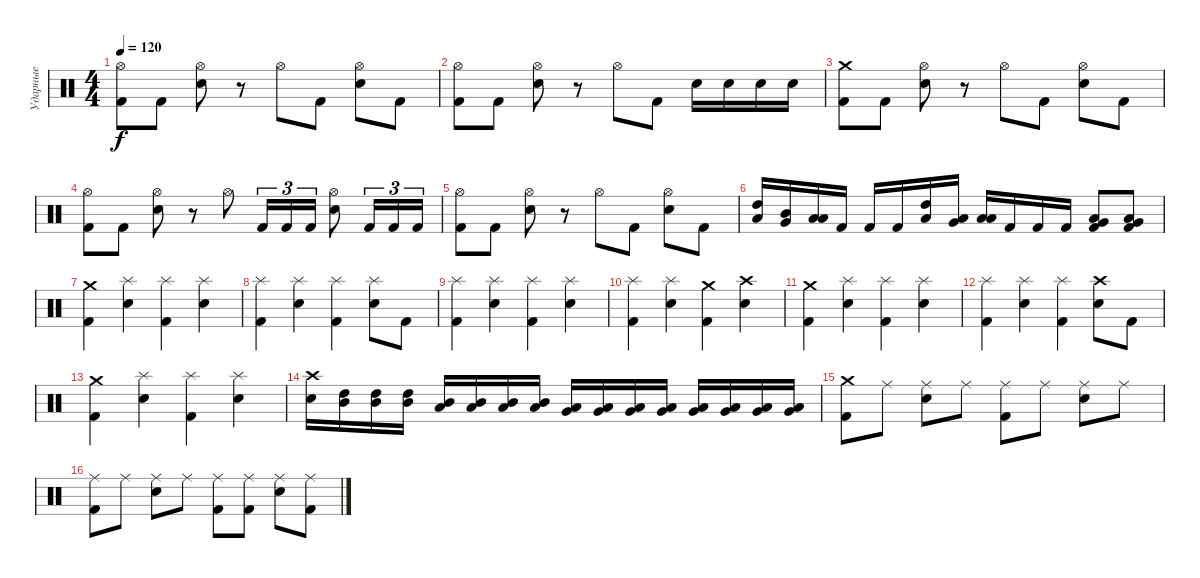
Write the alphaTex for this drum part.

\track ("Ударные" "Ударные") {instrument percussion}
\staff {score}
\articulation defaults
\ts (4 4)
\tempo 120
\clef neutral
\ks c
("Hi-Hat (open)" "Kick (hit) 2").8{dy f} "Kick (hit) 2".8 ("Hi-Hat (open)" "Electric Snare (hit)").8 r.8 "Hi-Hat (open)".8 "Kick (hit) 2".8 ("Hi-Hat (open)" "Electric Snare (hit)").8 "Kick (hit) 2".8 |
("Hi-Hat (open)" "Kick (hit) 2").8 "Kick (hit) 2".8 ("Hi-Hat (open)" "Electric Snare (hit)").8 r.8 "Hi-Hat (open)".8 "Kick (hit) 2".8 "Electric Snare (hit)".16 "Electric Snare (hit)".16 "Electric Snare (hit)".16 "Electric Snare (hit)".16 |
("Crash medium (hit)" "Kick (hit) 2").8 "Kick (hit) 2".8 ("Hi-Hat (open)" "Electric Snare (hit)").8 r.8 "Hi-Hat (open)".8 "Kick (hit) 2".8 ("Hi-Hat (open)" "Electric Snare (hit)").8 "Kick (hit) 2".8 |
("Hi-Hat (open)" "Kick (hit) 2").8 "Kick (hit) 2".8 ("Hi-Hat (open)" "Electric Snare (hit)").8 r.8 "Hi-Hat (open)".8 "Kick (hit) 2".16{tu (3 2)} "Kick (hit) 2".16{tu (3 2)} "Kick (hit) 2".16{tu (3 2)} ("Hi-Hat (open)" "Electric Snare (hit)").8 "Kick (hit) 2".16{tu (3 2)} "Kick (hit) 2".16{tu (3 2)} "Kick (hit) 2".16{tu (3 2)} |
("Hi-Hat (open)" "Kick (hit) 2").8 "Kick (hit) 2".8 ("Hi-Hat (open)" "Electric Snare (hit)").8 r.8 "Hi-Hat (open)".8 "Kick (hit) 2".8 ("Hi-Hat (open)" "Electric Snare (hit)").8 "Kick (hit) 2".8 |
("High Tom (hit)" "Low Tom (hit)").16 ("Mid Tom (hit)" "Very Low Tom (hit)").16 ("Low Tom (hit)" "Low Floor Tom (hit)").16 "Kick (hit) 2".16 "Kick (hit) 2".16 "Kick (hit) 2".16 ("High Tom (hit)" "Low Tom (hit)").16 ("Low Tom (hit)" "Very Low Tom (hit)").16 ("Low Tom (hit)" "Low Floor Tom (hit)").16 "Kick (hit) 2".16 "Kick (hit) 2".16 "Kick (hit) 2".16 ("Very Low Tom (hit)" "Low Floor Tom (hit)" "Kick (hit) 2").8 ("Very Low Tom (hit)" "Low Floor Tom (hit)" "Kick (hit) 2").8 |
("Crash medium (hit)" "Kick (hit) 2").4 ("Splash (hit)" "Electric Snare (hit)").4 ("Splash (hit)" "Kick (hit) 2").4 ("Splash (hit)" "Electric Snare (hit)").4 |
("Splash (hit)" "Kick (hit) 2").4 ("Splash (hit)" "Electric Snare (hit)").4 ("Splash (hit)" "Kick (hit) 2").4 ("Splash (hit)" "Electric Snare (hit)").8 "Kick (hit) 2".8 |
("Splash (hit)" "Kick (hit) 2").4 ("Splash (hit)" "Electric Snare (hit)").4 ("Splash (hit)" "Kick (hit) 2").4 ("Splash (hit)" "Electric Snare (hit)").4 |
("Splash (hit)" "Kick (hit) 2").4 ("Splash (hit)" "Electric Snare (hit)").4 ("Crash medium (hit)" "Kick (hit) 2").4 ("Crash high (hit)" "Electric Snare (hit)").4 |
("Crash medium (hit)" "Kick (hit) 2").4 ("Splash (hit)" "Electric Snare (hit)").4 ("Splash (hit)" "Kick (hit) 2").4 ("Splash (hit)" "Electric Snare (hit)").4 |
("Splash (hit)" "Kick (hit) 2").4 ("Splash (hit)" "Electric Snare (hit)").4 ("Splash (hit)" "Kick (hit) 2").4 ("Crash high (hit)" "Electric Snare (hit)").8 "Kick (hit) 2".8 |
("Crash medium (hit)" "Kick (hit) 2").4 ("Splash (hit)" "Electric Snare (hit)").4 ("Splash (hit)" "Kick (hit) 2").4 ("Splash (hit)" "Electric Snare (hit)").4 |
("Crash high (hit)" "Electric Snare (hit)").16 ("High Tom (hit)" "Mid Tom (hit)").16 ("High Tom (hit)" "Mid Tom (hit)").16 ("High Tom (hit)" "Mid Tom (hit)").16 ("Mid Tom (hit)" "Low Tom (hit)").16 ("Mid Tom (hit)" "Low Tom (hit)").16 ("Mid Tom (hit)" "Low Tom (hit)").16 ("Mid Tom (hit)" "Low Tom (hit)").16 ("Low Tom (hit)" "Very Low Tom (hit)").16 ("Low Tom (hit)" "Very Low Tom (hit)").16 ("Low Tom (hit)" "Very Low Tom (hit)").16 ("Low Tom (hit)" "Very Low Tom (hit)").16 ("Very Low Tom (hit)" "Low Floor Tom (hit)").16 ("Very Low Tom (hit)" "Low Floor Tom (hit)").16 ("Very Low Tom (hit)" "Low Floor Tom (hit)").16 ("Very Low Tom (hit)" "Low Floor Tom (hit)").16 |
("Crash medium (hit)" "Kick (hit) 2").8 "Ride (middle)".8 ("Ride (middle)" "Electric Snare (hit)").8 "Ride (middle)".8 ("Ride (middle)" "Kick (hit) 2").8 "Ride (middle)".8 ("Ride (middle)" "Electric Snare (hit)").8 "Ride (middle)".8 |
("Ride (middle)" "Kick (hit) 2").8 "Ride (middle)".8 ("Ride (middle)" "Electric Snare (hit)").8 "Ride (middle)".8 ("Ride (middle)" "Kick (hit) 2").8 ("Ride (middle)" "Kick (hit) 2").8 ("Ride (middle)" "Electric Snare (hit)").8 ("Ride (middle)" "Kick (hit) 2").8
